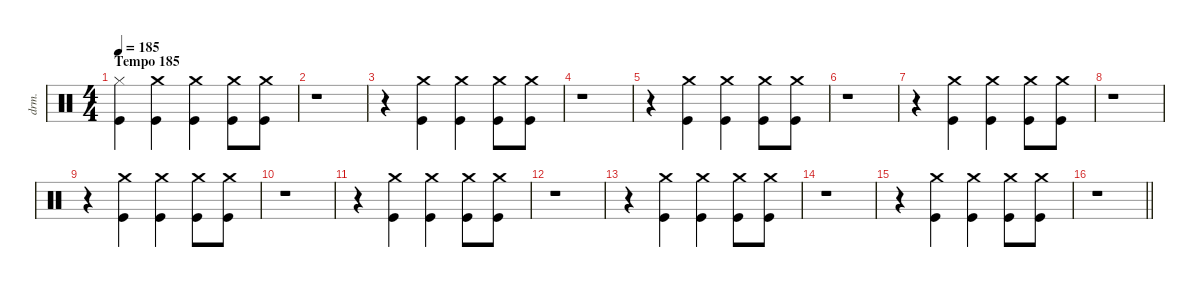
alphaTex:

\defaultSystemsLayout 4
\hideDynamics
\bracketExtendMode nobrackets
\otherSystemsTrackNameOrientation horizontal
\track ("Lars Ulrich (Drums)" "drm.") {instrument percussion}
\staff {score}
\articulation defaults
\ts (4 4)
\section ("" "Tempo 185")
\tempo 185
\clef neutral
\ks c
("Kick (hit)" "Hi-Hat (closed)").4{dy f beam Down} ("Crash medium (hit)" "Kick (hit)").4{beam Down} ("Crash medium (hit)" "Kick (hit)").4{beam Down} ("Kick (hit)" "Crash medium (hit)").8{beam Down} ("Kick (hit)" "Crash medium (hit)").8{beam Down} |
r.1{beam Down} |
r.4{beam Down} ("Kick (hit)" "Crash medium (hit)").4{beam Down} ("Kick (hit)" "Crash medium (hit)").4{beam Down} ("Kick (hit)" "Crash medium (hit)").8{beam Down} ("Kick (hit)" "Crash medium (hit)").8{beam Down} |
r.1{beam Down} |
r.4{beam Down} ("Crash medium (hit)" "Kick (hit)").4{beam Down} ("Crash medium (hit)" "Kick (hit)").4{beam Down} ("Kick (hit)" "Crash medium (hit)").8{beam Down} ("Kick (hit)" "Crash medium (hit)").8{beam Down} |
r.1{beam Down} |
r.4{beam Down} ("Kick (hit)" "Crash medium (hit)").4{beam Down} ("Kick (hit)" "Crash medium (hit)").4{beam Down} ("Kick (hit)" "Crash medium (hit)").8{beam Down} ("Kick (hit)" "Crash medium (hit)").8{beam Down} |
r.1{beam Down} |
r.4{beam Down} ("Crash medium (hit)" "Kick (hit)").4{beam Down} ("Crash medium (hit)" "Kick (hit)").4{beam Down} ("Kick (hit)" "Crash medium (hit)").8{beam Down} ("Kick (hit)" "Crash medium (hit)").8{beam Down} |
r.1{beam Down} |
r.4{beam Down} ("Kick (hit)" "Crash medium (hit)").4{beam Down} ("Kick (hit)" "Crash medium (hit)").4{beam Down} ("Kick (hit)" "Crash medium (hit)").8{beam Down} ("Kick (hit)" "Crash medium (hit)").8{beam Down} |
r.1{beam Down} |
r.4{beam Down} ("Crash medium (hit)" "Kick (hit)").4{beam Down} ("Crash medium (hit)" "Kick (hit)").4{beam Down} ("Kick (hit)" "Crash medium (hit)").8{beam Down} ("Kick (hit)" "Crash medium (hit)").8{beam Down} |
r.1{beam Down} |
r.4{beam Down} ("Kick (hit)" "Crash medium (hit)").4{beam Down} ("Kick (hit)" "Crash medium (hit)").4{beam Down} ("Kick (hit)" "Crash medium (hit)").8{beam Down} ("Kick (hit)" "Crash medium (hit)").8{beam Down} |
\barLineRight lightlight
r.1{beam Down}
